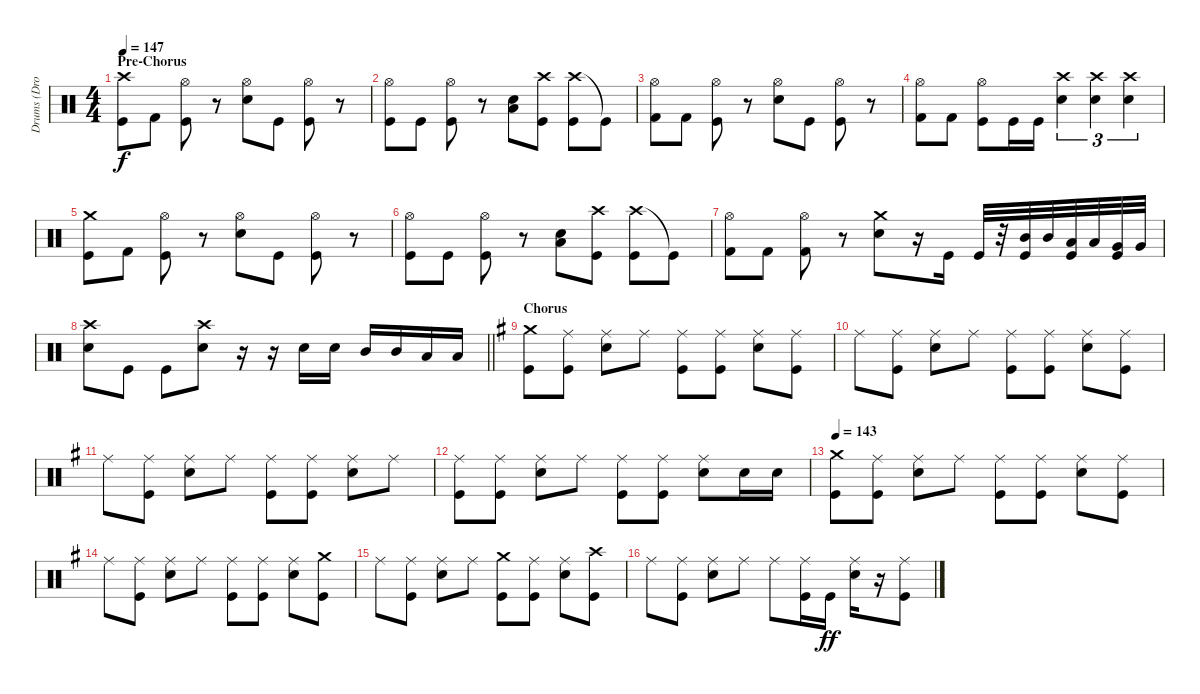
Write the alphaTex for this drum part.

\track ("Drums (Drover)" "Drums (Dro") {instrument percussion}
\staff {score}
\articulation defaults
\ts (4 4)
\section ("" "Pre-Chorus")
\tempo 147
\clef neutral
\ks c
("Crash high (hit)" "Kick (hit)").8{dy f} "Kick (hit) 2".8 ("Hi-Hat (open)" "Kick (hit)").8 r.8 ("Hi-Hat (open)" "Snare (hit) 2").8 "Kick (hit)".8 ("Hi-Hat (open)" "Kick (hit)").8 r.8 |
("Hi-Hat (open)" "Kick (hit)").8 "Kick (hit)".8 ("Hi-Hat (open)" "Kick (hit)").8 r.8 ("Snare (hit) 2" "Low Floor Tom (hit)").8 ("Crash high (hit)" "Kick (hit)").8 ("Crash high (hit)" "Kick (hit)").8 "Kick (hit)"{t}.8 |
("Hi-Hat (open)" "Kick (hit) 2").8 "Kick (hit) 2".8 ("Hi-Hat (open)" "Kick (hit)").8 r.8 ("Hi-Hat (open)" "Snare (hit) 2").8 "Kick (hit)".8 ("Hi-Hat (open)" "Kick (hit)").8 r.8 |
("Hi-Hat (open)" "Kick (hit) 2").8 "Kick (hit) 2".8 ("Hi-Hat (open)" "Kick (hit)").8 "Kick (hit)".16 "Kick (hit)".16 ("Crash high (hit)" "Snare (hit) 2").4{tu (3 2)} ("Crash high (hit)" "Snare (hit) 2").4{tu (3 2)} ("Crash high (hit)" "Snare (hit) 2").4{tu (3 2)} |
("Crash medium (hit)" "Kick (hit)").8 "Kick (hit) 2".8 ("Hi-Hat (open)" "Kick (hit)").8 r.8 ("Hi-Hat (open)" "Snare (hit) 2").8 "Kick (hit)".8 ("Hi-Hat (open)" "Kick (hit)").8 r.8 |
("Hi-Hat (open)" "Kick (hit)").8 "Kick (hit)".8 ("Hi-Hat (open)" "Kick (hit)").8 r.8 ("Snare (hit) 2" "Low Floor Tom (hit)").8 ("Crash high (hit)" "Kick (hit)").8 ("Crash high (hit)" "Kick (hit)").8 "Kick (hit)"{t}.8 |
("Hi-Hat (open)" "Kick (hit) 2").8 "Kick (hit) 2".8 ("Hi-Hat (open)" "Kick (hit) 2").8 r.8 ("Crash medium (hit)" "Snare (hit) 2").8 r.16 "Kick (hit)".16 "Kick (hit)".32 r.32 ("Mid Tom (hit)" "Kick (hit)").32 "Mid Tom (hit)".32 ("Low Tom (hit)" "Kick (hit)").32 "Low Tom (hit)".32 ("Very Low Tom (hit)" "Kick (hit)").32 "Very Low Tom (hit)".32 |
\barLineRight lightlight
("Crash high (hit)" "Snare (hit) 2").8 "Kick (hit)".8 "Kick (hit)".8 ("Crash high (hit)" "Snare (hit) 2").8 r.16 r.16 "Snare (hit) 2".16 "Snare (hit) 2".16 "Mid Tom (hit)".16 "Mid Tom (hit)".16 "Low Tom (hit)".16 "Low Tom (hit)".16 |
\section ("" "Chorus")
\ks g
("Crash medium (hit)" "Kick (hit)").8 ("Ride (middle)" "Kick (hit)").8 ("Ride (middle)" "Snare (hit) 2").8 "Ride (middle)".8 ("Ride (middle)" "Kick (hit)").8 ("Ride (middle)" "Kick (hit)").8 ("Ride (middle)" "Snare (hit) 2").8 ("Ride (middle)" "Kick (hit)").8 |
"Ride (middle)".8 ("Ride (middle)" "Kick (hit)").8 ("Ride (middle)" "Snare (hit) 2").8 "Ride (middle)".8 ("Ride (middle)" "Kick (hit)").8 ("Ride (middle)" "Kick (hit)").8 ("Ride (middle)" "Snare (hit) 2").8 ("Ride (middle)" "Kick (hit)").8 |
"Ride (middle)".8 ("Ride (middle)" "Kick (hit)").8 ("Ride (middle)" "Snare (hit) 2").8 "Ride (middle)".8 ("Ride (middle)" "Kick (hit)").8 ("Ride (middle)" "Kick (hit)").8 ("Ride (middle)" "Snare (hit) 2").8 "Ride (middle)".8 |
("Ride (middle)" "Kick (hit)").8 ("Ride (middle)" "Kick (hit)").8 ("Ride (middle)" "Snare (hit) 2").8 "Ride (middle)".8 ("Ride (middle)" "Kick (hit)").8 ("Ride (middle)" "Kick (hit)").8 ("Ride (middle)" "Snare (hit) 2").8 "Snare (hit) 2".16 "Snare (hit) 2".16 |
\tempo 143
("Crash medium (hit)" "Kick (hit)").8 ("Ride (middle)" "Kick (hit)").8 ("Ride (middle)" "Snare (hit) 2").8 "Ride (middle)".8 ("Ride (middle)" "Kick (hit)").8 ("Ride (middle)" "Kick (hit)").8 ("Ride (middle)" "Snare (hit) 2").8 ("Ride (middle)" "Kick (hit)").8 |
"Ride (middle)".8 ("Ride (middle)" "Kick (hit)").8 ("Ride (middle)" "Snare (hit) 2").8 "Ride (middle)".8 ("Ride (middle)" "Kick (hit)").8 ("Ride (middle)" "Kick (hit)").8 ("Ride (middle)" "Snare (hit) 2").8 ("Crash medium (hit)" "Kick (hit)").8 |
"Ride (middle)".8 ("Ride (middle)" "Kick (hit)").8 ("Ride (middle)" "Snare (hit) 2").8 "Ride (middle)".8 ("Crash medium (hit)" "Kick (hit)").8 ("Ride (middle)" "Kick (hit)").8 ("Ride (middle)" "Snare (hit) 2").8 ("Crash high (hit)" "Kick (hit)").8 |
"Ride (middle)".8 ("Ride (middle)" "Kick (hit)").8 ("Ride (middle)" "Snare (hit) 2").8 "Ride (middle)".8 "Ride (middle)".8 ("Ride (middle)" "Kick (hit)").16 "Kick (hit)".16{dy ff} ("Ride (middle)" "Snare (hit) 2").16 r.16 ("Ride (middle)" "Kick (hit)").8
